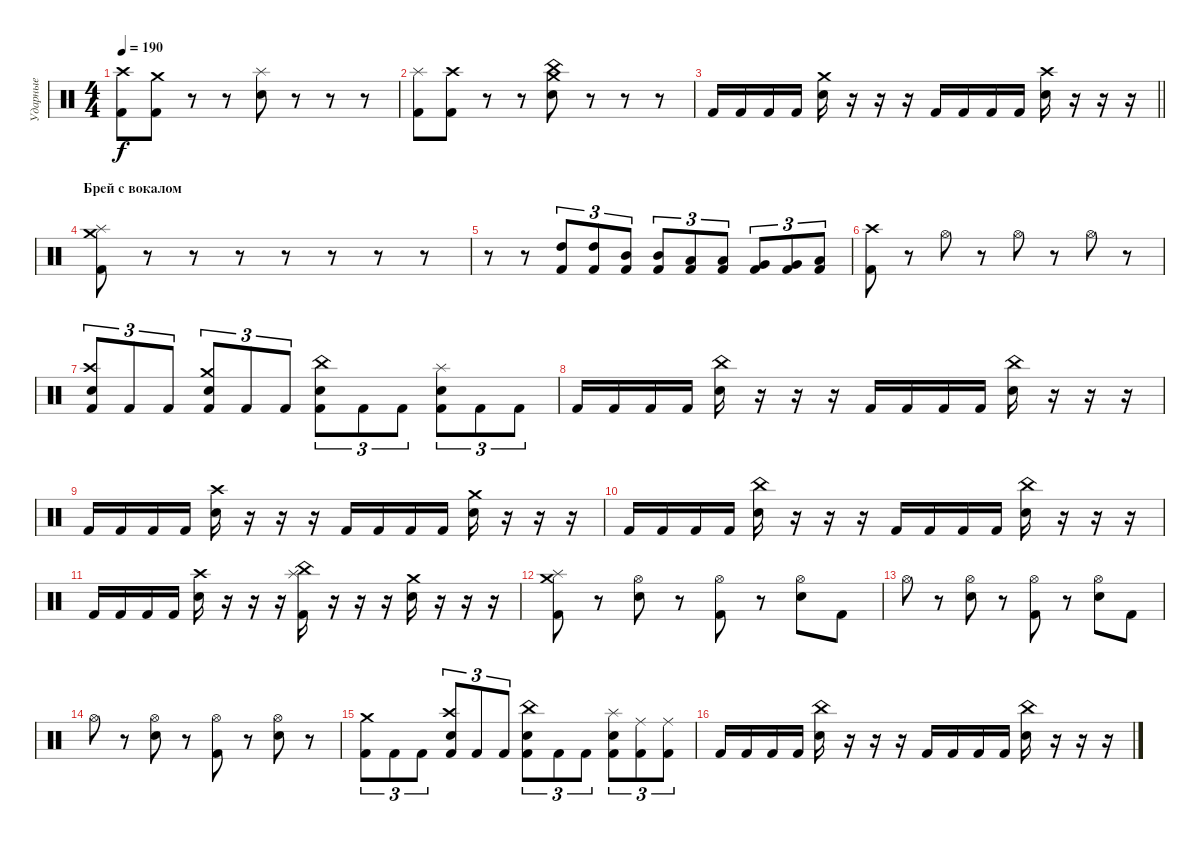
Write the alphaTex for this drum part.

\track ("Ударные" "Ударные") {instrument percussion}
\staff {score}
\articulation defaults
\ts (4 4)
\tempo 190
\clef neutral
\ks c
("Kick (hit) 2" "Crash high (hit)").8{dy f} ("Kick (hit) 2" "Crash medium (hit)").8 r.8 r.8 ("Electric Snare (hit)" "Splash (hit)").8 r.8 r.8 r.8 |
("Kick (hit) 2" "Splash (hit)").8 ("Kick (hit) 2" "Crash high (hit)").8 r.8 r.8 ("Electric Snare (hit)" "China (hit)" "Crash medium (hit)").8 r.8 r.8 r.8 |
\barLineRight lightlight "Kick (hit) 2".16 "Kick (hit) 2".16 "Kick (hit) 2".16 "Kick (hit) 2".16
("Electric Snare (hit)" "Crash medium (hit)").16 r.16 r.16 r.16 "Kick (hit) 2".16 "Kick (hit) 2".16 "Kick (hit) 2".16 "Kick (hit) 2".16 ("Electric Snare (hit)" "Crash high (hit)").16 r.16 r.16 r.16 |
\section ("" "Брей с вокалом")
("Kick (hit) 2" "Splash (hit)" "Crash medium (hit)").8 r.8 r.8 r.8 r.8 r.8 r.8 r.8 |
r.8 r.8 ("High Tom (hit)" "Kick (hit) 2").8{tu (3 2)} ("High Tom (hit)" "Kick (hit) 2").8{tu (3 2)} ("Mid Tom (hit)" "Kick (hit) 2").8{tu (3 2)} ("Mid Tom (hit)" "Kick (hit) 2").8{tu (3 2)} ("Low Tom (hit)" "Kick (hit) 2").8{tu (3 2)} ("Low Tom (hit)" "Kick (hit) 2").8{tu (3 2)} ("Very Low Tom (hit)" "Kick (hit) 2").8{tu (3 2)} ("Very Low Tom (hit)" "Kick (hit) 2").8{tu (3 2)} ("Low Floor Tom (hit)" "Kick (hit) 2").8{tu (3 2)} |
("Crash high (hit)" "Kick (hit) 2").8 r.8 "Hi-Hat (open)".8 r.8 "Hi-Hat (open)".8 r.8 "Hi-Hat (open)".8 r.8 |
("Kick (hit) 2" "Electric Snare (hit)" "Crash high (hit)").8{tu (3 2)} "Kick (hit) 2".8{tu (3 2)} "Kick (hit) 2".8{tu (3 2)} ("Kick (hit) 2" "Electric Snare (hit)" "Crash medium (hit)").8{tu (3 2)} "Kick (hit) 2".8{tu (3 2)} "Kick (hit) 2".8{tu (3 2)} ("Kick (hit) 2" "Electric Snare (hit)" "China (hit)").8{tu (3 2)} "Kick (hit) 2".8{tu (3 2)} "Kick (hit) 2".8{tu (3 2)} ("Kick (hit) 2" "Electric Snare (hit)" "Splash (hit)").8{tu (3 2)} "Kick (hit) 2".8{tu (3 2)} "Kick (hit) 2".8{tu (3 2)} |
"Kick (hit) 2".16 "Kick (hit) 2".16 "Kick (hit) 2".16 "Kick (hit) 2".16 ("Electric Snare (hit)" "China (hit)").16 r.16 r.16 r.16 "Kick (hit) 2".16 "Kick (hit) 2".16 "Kick (hit) 2".16 "Kick (hit) 2".16 ("Electric Snare (hit)" "China (hit)").16 r.16 r.16 r.16 |
"Kick (hit) 2".16 "Kick (hit) 2".16 "Kick (hit) 2".16 "Kick (hit) 2".16 ("Electric Snare (hit)" "Crash high (hit)").16 r.16 r.16 r.16 "Kick (hit) 2".16 "Kick (hit) 2".16 "Kick (hit) 2".16 "Kick (hit) 2".16 ("Electric Snare (hit)" "Crash medium (hit)").16 r.16 r.16 r.16 |
"Kick (hit) 2".16 "Kick (hit) 2".16 "Kick (hit) 2".16 "Kick (hit) 2".16 ("Electric Snare (hit)" "China (hit)").16 r.16 r.16 r.16 "Kick (hit) 2".16 "Kick (hit) 2".16 "Kick (hit) 2".16 "Kick (hit) 2".16 ("Electric Snare (hit)" "China (hit)").16 r.16 r.16 r.16 |
"Kick (hit) 2".16 "Kick (hit) 2".16 "Kick (hit) 2".16 "Kick (hit) 2".16 ("Electric Snare (hit)" "Crash high (hit)").16 r.16 r.16 r.16 ("Kick (hit) 2" "China (hit)" "Splash (hit)").16 r.16 r.16 r.16 ("Electric Snare (hit)" "Crash medium (hit)").16 r.16 r.16 r.16 |
("Kick (hit) 2" "Splash (hit)" "Crash medium (hit)").8 r.8 ("Electric Snare (hit)" "Hi-Hat (open)").8 r.8 ("Kick (hit) 2" "Hi-Hat (open)").8 r.8 ("Electric Snare (hit)" "Hi-Hat (open)").8 "Kick (hit) 2".8 |
"Hi-Hat (open)".8 r.8 ("Electric Snare (hit)" "Hi-Hat (open)").8 r.8 ("Kick (hit) 2" "Hi-Hat (open)").8 r.8 ("Electric Snare (hit)" "Hi-Hat (open)").8 "Kick (hit) 2".8 |
"Hi-Hat (open)".8 r.8 ("Electric Snare (hit)" "Hi-Hat (open)").8 r.8 ("Kick (hit) 2" "Hi-Hat (open)").8 r.8 ("Electric Snare (hit)" "Hi-Hat (open)").8 r.8 |
("Kick (hit) 2" "Crash medium (hit)").8{tu (3 2)} "Kick (hit) 2".8{tu (3 2)} "Kick (hit) 2".8{tu (3 2)} ("Kick (hit) 2" "Electric Snare (hit)" "Crash high (hit)").8{tu (3 2)} "Kick (hit) 2".8{tu (3 2)} "Kick (hit) 2".8{tu (3 2)} ("Kick (hit) 2" "Electric Snare (hit)" "China (hit)").8{tu (3 2)} "Kick (hit) 2".8{tu (3 2)} "Kick (hit) 2".8{tu (3 2)} ("Kick (hit) 2" "Electric Snare (hit)" "Splash (hit)").8{tu (3 2)} ("Kick (hit) 2" "Ride (middle)").8{tu (3 2)} ("Kick (hit) 2" "Ride (middle)").8{tu (3 2)} |
"Kick (hit) 2".16 "Kick (hit) 2".16 "Kick (hit) 2".16 "Kick (hit) 2".16 ("Electric Snare (hit)" "China (hit)").16 r.16 r.16 r.16 "Kick (hit) 2".16 "Kick (hit) 2".16 "Kick (hit) 2".16 "Kick (hit) 2".16 ("Electric Snare (hit)" "China (hit)").16 r.16 r.16 r.16
